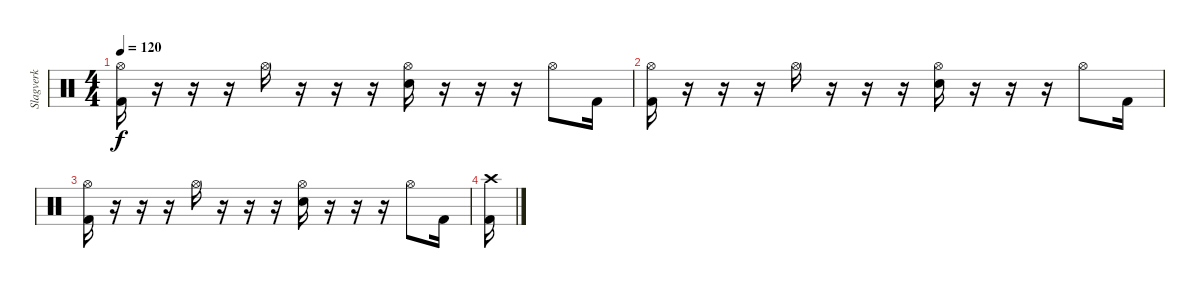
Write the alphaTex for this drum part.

\track ("Slagverk" "Slagverk") {instrument percussion}
\staff {score}
\articulation defaults
\ts (4 4)
\tempo 120
\clef neutral
\ks c
("Hi-Hat (open)" "Kick (hit) 2").16{dy f} r.16 r.16 r.16 "Hi-Hat (open)".16 r.16 r.16 r.16 ("Hi-Hat (open)" "Electric Snare (hit)").16 r.16 r.16 r.16 "Hi-Hat (open)".8 "Kick (hit) 2".16 |
("Hi-Hat (open)" "Kick (hit) 2").16 r.16 r.16 r.16 "Hi-Hat (open)".16 r.16 r.16 r.16 ("Hi-Hat (open)" "Electric Snare (hit)").16 r.16 r.16 r.16 "Hi-Hat (open)".8 "Kick (hit) 2".16 |
("Hi-Hat (open)" "Kick (hit) 2").16 r.16 r.16 r.16 "Hi-Hat (open)".16 r.16 r.16 r.16 ("Hi-Hat (open)" "Electric Snare (hit)").16 r.16 r.16 r.16 "Hi-Hat (open)".8 "Kick (hit) 2".16 |
("Crash high (hit)" "Kick (hit) 2").16
